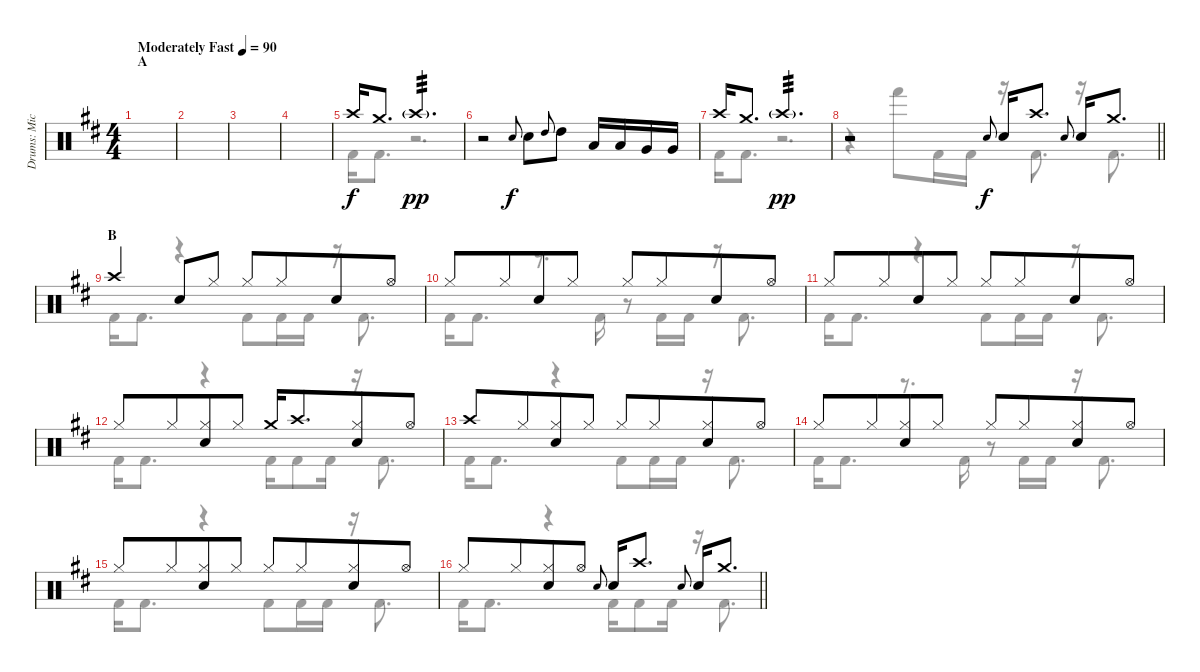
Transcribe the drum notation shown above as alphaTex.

\track ("Drums: Mick" "Drums: Mic") {instrument percussion}
\staff {score}
\articulation defaults
\voice
\ts (4 4)
\section ("" "A")
\tempo (90 "Moderately Fast")
\clef neutral
\ks d
|
|
|
|
"Crash high (hit)".16 "Crash medium (hit)".8{d} "Crash high (hit)"{g}.2{d tp 3 dy pp} |
r.2 "Electric Snare (hit)".8{gr onbeat dy f} "Snare (hit) 2".8 "High Tom (hit)".8{gr onbeat} "High Tom (hit)".8 "Low Tom (hit)".16 "Low Tom (hit)".16 "Very Low Tom (hit)".16 "Very Low Tom (hit)".16 |
"Crash high (hit)".16 "Crash medium (hit)".8{d} "Crash high (hit)"{g}.2{d tp 3 dy pp} |
\barLineRight lightlight
r.2 "Electric Snare (hit)".8{gr onbeat dy f} "Snare (hit) 2".16 "Crash high (hit)".8{d} "Electric Snare (hit)".8{gr onbeat} "Snare (hit) 2".16 "Crash medium (hit)".8{d} |
\section ("" "B")
"Crash high (hit)".4 "Snare (hit) 2".8 "Hi-Hat (closed)".8 "Hi-Hat (closed)".8 "Hi-Hat (closed)".8{beam merge} "Snare (hit) 2".8 "Hi-Hat (open)".8 |
"Hi-Hat (closed)".8 "Hi-Hat (closed)".8{beam merge} "Snare (hit) 2".8 "Hi-Hat (closed)".8 "Hi-Hat (closed)".8 "Hi-Hat (closed)".8{beam merge} "Snare (hit) 2".8 "Hi-Hat (open)".8 |
"Hi-Hat (closed)".8 "Hi-Hat (closed)".8{beam merge} "Snare (hit) 2".8 "Hi-Hat (closed)".8 "Hi-Hat (closed)".8 "Hi-Hat (closed)".8{beam merge} "Snare (hit) 2".8 "Hi-Hat (open)".8 |
"Hi-Hat (closed)".8 "Hi-Hat (closed)".8{beam merge} ("Hi-Hat (closed)" "Snare (hit) 2").8 "Hi-Hat (closed)".8 "Crash medium (hit)".16 "Crash high (hit)".8{d beam merge} ("Hi-Hat (closed)" "Snare (hit) 2").8 "Hi-Hat (open)".8 |
"Crash high (hit)".8 "Hi-Hat (closed)".8{beam merge} ("Hi-Hat (closed)" "Snare (hit) 2").8 "Hi-Hat (closed)".8 "Hi-Hat (closed)".8 "Hi-Hat (closed)".8{beam merge} ("Hi-Hat (closed)" "Snare (hit) 2").8 "Hi-Hat (open)".8 |
"Hi-Hat (closed)".8 "Hi-Hat (closed)".8{beam merge} ("Hi-Hat (closed)" "Snare (hit) 2").8 "Hi-Hat (closed)".8 "Hi-Hat (closed)".8 "Hi-Hat (closed)".8{beam merge} ("Hi-Hat (closed)" "Snare (hit) 2").8 "Hi-Hat (open)".8 |
"Hi-Hat (closed)".8 "Hi-Hat (closed)".8{beam merge} ("Hi-Hat (closed)" "Snare (hit) 2").8 "Hi-Hat (closed)".8 "Hi-Hat (closed)".8 "Hi-Hat (closed)".8{beam merge} ("Hi-Hat (closed)" "Snare (hit) 2").8 "Hi-Hat (open)".8 |
\barLineRight lightlight "Hi-Hat (closed)".8 "Hi-Hat (closed)".8{beam merge}
("Hi-Hat (closed)" "Snare (hit) 2").8 "Hi-Hat (open)".8 "Electric Snare (hit)".8{gr onbeat} "Snare (hit) 2".16 "Crash high (hit)".8{d} "Electric Snare (hit)".8{gr onbeat} "Snare (hit) 2".16 "Crash medium (hit)".8{d}
\voice
\clef neutral
\ottava regular
\simile none
\ks d
|
|
|
|
"Kick (hit) 2".16 "Kick (hit) 2".8{d} r.2{d} |
|
"Kick (hit) 2".16 "Kick (hit) 2".8{d} r.2{d} |
\barLineRight lightlight
r.4 "Hand (hit)".8 "Kick (hit) 2".16 "Kick (hit) 2".16 r.16 "Kick (hit) 2".8{d} r.16 "Kick (hit) 2".8{d} |
"Kick (hit) 2".16 "Kick (hit) 2".8{d} r.4 "Kick (hit) 2".8 "Kick (hit) 2".16 "Kick (hit) 2".16 r.16 "Kick (hit) 2".8{d} |
"Kick (hit) 2".16 "Kick (hit) 2".8{d} r.8{d} "Kick (hit) 2".16 r.8 "Kick (hit) 2".16 "Kick (hit) 2".16 r.16 "Kick (hit) 2".8{d} |
"Kick (hit) 2".16 "Kick (hit) 2".8{d} r.4 "Kick (hit) 2".8 "Kick (hit) 2".16 "Kick (hit) 2".16 r.16 "Kick (hit) 2".8{d} |
"Kick (hit) 2".16 "Kick (hit) 2".8{d} r.4 "Kick (hit) 2".16 "Kick (hit) 2".8 "Kick (hit) 2".16 r.16 "Kick (hit) 2".8{d} |
"Kick (hit) 2".16 "Kick (hit) 2".8{d} r.4 "Kick (hit) 2".8 "Kick (hit) 2".16 "Kick (hit) 2".16 r.16 "Kick (hit) 2".8{d} |
"Kick (hit) 2".16 "Kick (hit) 2".8{d} r.8{d} "Kick (hit) 2".16 r.8 "Kick (hit) 2".16 "Kick (hit) 2".16 r.16 "Kick (hit) 2".8{d} |
"Kick (hit) 2".16 "Kick (hit) 2".8{d} r.4 "Kick (hit) 2".8 "Kick (hit) 2".16 "Kick (hit) 2".16 r.16 "Kick (hit) 2".8{d} |
\barLineRight lightlight "Kick (hit) 2".16 "Kick (hit) 2".8{d}
r.4 "Kick (hit) 2".16 "Kick (hit) 2".8 "Kick (hit) 2".16 r.16 "Kick (hit) 2".8{d}
